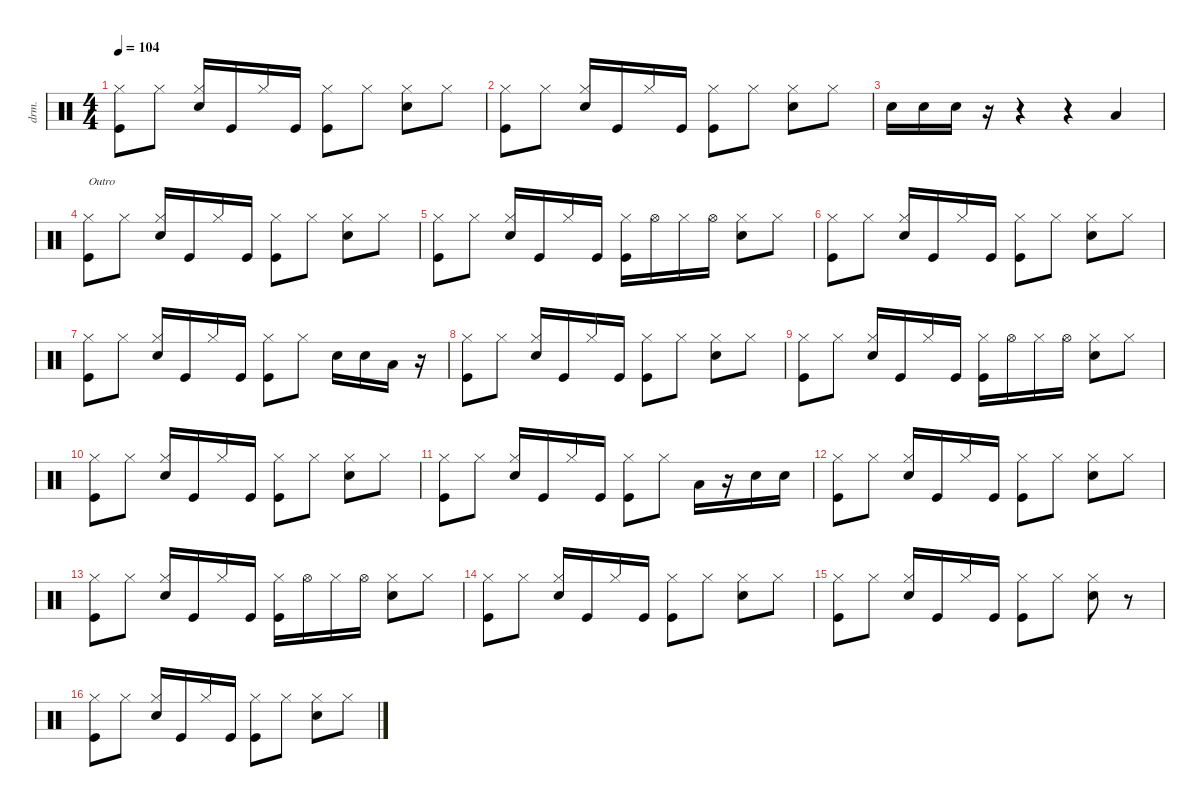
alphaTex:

\defaultSystemsLayout 4
\hideDynamics
\bracketExtendMode nobrackets
\otherSystemsTrackNameOrientation horizontal
\track ("Drumkit" "drm.") {instrument percussion}
\staff {score}
\articulation defaults
\ts (4 4)
\tempo 104
\clef neutral
\ks c
("Kick (hit)" "Hi-Hat (closed)").8{dy mf beam Down} "Hi-Hat (closed)".8{beam Down} ("Hi-Hat (closed)" "Snare (hit) 2").16{beam Up} "Kick (hit)".16{beam Up} "Hi-Hat (closed)".16{beam Up} "Kick (hit)".16{beam Up} ("Hi-Hat (closed)" "Kick (hit)").8{beam Down} "Hi-Hat (closed)".8{beam Down} ("Hi-Hat (closed)" "Snare (hit) 2").8{beam Down} "Hi-Hat (closed)".8{beam Down} |
("Kick (hit)" "Hi-Hat (closed)").8{beam Down} "Hi-Hat (closed)".8{beam Down} ("Hi-Hat (closed)" "Snare (hit) 2").16{beam Up} "Kick (hit)".16{beam Up} "Hi-Hat (closed)".16{beam Up} "Kick (hit)".16{beam Up} ("Hi-Hat (closed)" "Kick (hit)").8{beam Down} "Hi-Hat (closed)".8{beam Down} ("Hi-Hat (closed)" "Snare (hit) 2").8{beam Down} "Hi-Hat (closed)".8{beam Down} |
"Snare (hit) 2".16{beam Down} "Snare (hit) 2".16{beam Down} "Snare (hit) 2".16{beam Down} r.16{beam Down} r.4{beam Down} r.4{beam Down} "Low Tom (hit)".4{beam Up} |
("Kick (hit)" "Hi-Hat (closed)").8{txt "Outro" beam Down} "Hi-Hat (closed)".8{beam Down} ("Hi-Hat (closed)" "Snare (hit) 2").16{beam Up} "Kick (hit)".16{beam Up} "Hi-Hat (closed)".16{beam Up} "Kick (hit)".16{beam Up} ("Hi-Hat (closed)" "Kick (hit)").8{beam Down} "Hi-Hat (closed)".8{beam Down} ("Hi-Hat (closed)" "Snare (hit) 2").8{beam Down} "Hi-Hat (closed)".8{beam Down} |
("Kick (hit)" "Hi-Hat (closed)").8{beam Down} "Hi-Hat (closed)".8{beam Down} ("Hi-Hat (closed)" "Snare (hit) 2").16{beam Up} "Kick (hit)".16{beam Up} "Hi-Hat (closed)".16{beam Up} "Kick (hit)".16{beam Up} ("Kick (hit)" "Hi-Hat (closed)").16{beam Down} "Hi-Hat (open)".16{beam Down} "Hi-Hat (closed)".16{beam Down} "Hi-Hat (open)".16{beam Down} ("Snare (hit) 2" "Hi-Hat (closed)").8{beam Down} "Hi-Hat (closed)".8{beam Down} |
("Kick (hit)" "Hi-Hat (closed)").8{beam Down} "Hi-Hat (closed)".8{beam Down} ("Hi-Hat (closed)" "Snare (hit) 2").16{beam Up} "Kick (hit)".16{beam Up} "Hi-Hat (closed)".16{beam Up} "Kick (hit)".16{beam Up} ("Hi-Hat (closed)" "Kick (hit)").8{beam Down} "Hi-Hat (closed)".8{beam Down} ("Hi-Hat (closed)" "Snare (hit) 2").8{beam Down} "Hi-Hat (closed)".8{beam Down} |
("Kick (hit)" "Hi-Hat (closed)").8{beam Down} "Hi-Hat (closed)".8{beam Down} ("Hi-Hat (closed)" "Snare (hit) 2").16{beam Up} "Kick (hit)".16{beam Up} "Hi-Hat (closed)".16{beam Up} "Kick (hit)".16{beam Up} ("Hi-Hat (closed)" "Kick (hit)").8{beam Down} "Hi-Hat (closed)".8{beam Down} "Snare (hit) 2".16{beam Down} "Snare (hit) 2".16{beam Down} "Low Tom (hit)".16{beam Down} r.16{beam Down} |
("Kick (hit)" "Hi-Hat (closed)").8{beam Down} "Hi-Hat (closed)".8{beam Down} ("Hi-Hat (closed)" "Snare (hit) 2").16{beam Up} "Kick (hit)".16{beam Up} "Hi-Hat (closed)".16{beam Up} "Kick (hit)".16{beam Up} ("Hi-Hat (closed)" "Kick (hit)").8{beam Down} "Hi-Hat (closed)".8{beam Down} ("Hi-Hat (closed)" "Snare (hit) 2").8{beam Down} "Hi-Hat (closed)".8{beam Down} |
("Kick (hit)" "Hi-Hat (closed)").8{beam Down} "Hi-Hat (closed)".8{beam Down} ("Hi-Hat (closed)" "Snare (hit) 2").16{beam Up} "Kick (hit)".16{beam Up} "Hi-Hat (closed)".16{beam Up} "Kick (hit)".16{beam Up} ("Kick (hit)" "Hi-Hat (closed)").16{beam Down} "Hi-Hat (open)".16{beam Down} "Hi-Hat (closed)".16{beam Down} "Hi-Hat (open)".16{beam Down} ("Snare (hit) 2" "Hi-Hat (closed)").8{beam Down} "Hi-Hat (closed)".8{beam Down} |
("Kick (hit)" "Hi-Hat (closed)").8{beam Down} "Hi-Hat (closed)".8{beam Down} ("Hi-Hat (closed)" "Snare (hit) 2").16{beam Up} "Kick (hit)".16{beam Up} "Hi-Hat (closed)".16{beam Up} "Kick (hit)".16{beam Up} ("Hi-Hat (closed)" "Kick (hit)").8{beam Down} "Hi-Hat (closed)".8{beam Down} ("Hi-Hat (closed)" "Snare (hit) 2").8{beam Down} "Hi-Hat (closed)".8{beam Down} |
("Kick (hit)" "Hi-Hat (closed)").8{beam Down} "Hi-Hat (closed)".8{beam Down} ("Hi-Hat (closed)" "Snare (hit) 2").16{beam Up} "Kick (hit)".16{beam Up} "Hi-Hat (closed)".16{beam Up} "Kick (hit)".16{beam Up} ("Hi-Hat (closed)" "Kick (hit)").8{beam Down} "Hi-Hat (closed)".8{beam Down} "Low Tom (hit)".16{beam Down} r.16{beam Down} "Snare (hit) 2".16{beam Down} "Snare (hit) 2".16{beam Down} |
("Kick (hit)" "Hi-Hat (closed)").8{beam Down} "Hi-Hat (closed)".8{beam Down} ("Hi-Hat (closed)" "Snare (hit) 2").16{beam Up} "Kick (hit)".16{beam Up} "Hi-Hat (closed)".16{beam Up} "Kick (hit)".16{beam Up} ("Hi-Hat (closed)" "Kick (hit)").8{beam Down} "Hi-Hat (closed)".8{beam Down} ("Hi-Hat (closed)" "Snare (hit) 2").8{beam Down} "Hi-Hat (closed)".8{beam Down} |
("Kick (hit)" "Hi-Hat (closed)").8{beam Down} "Hi-Hat (closed)".8{beam Down} ("Hi-Hat (closed)" "Snare (hit) 2").16{beam Up} "Kick (hit)".16{beam Up} "Hi-Hat (closed)".16{beam Up} "Kick (hit)".16{beam Up} ("Kick (hit)" "Hi-Hat (closed)").16{beam Down} "Hi-Hat (open)".16{beam Down} "Hi-Hat (closed)".16{beam Down} "Hi-Hat (open)".16{beam Down} ("Snare (hit) 2" "Hi-Hat (closed)").8{beam Down} "Hi-Hat (closed)".8{beam Down} |
("Kick (hit)" "Hi-Hat (closed)").8{beam Down} "Hi-Hat (closed)".8{beam Down} ("Hi-Hat (closed)" "Snare (hit) 2").16{beam Up} "Kick (hit)".16{beam Up} "Hi-Hat (closed)".16{beam Up} "Kick (hit)".16{beam Up} ("Hi-Hat (closed)" "Kick (hit)").8{beam Down} "Hi-Hat (closed)".8{beam Down} ("Hi-Hat (closed)" "Snare (hit) 2").8{beam Down} "Hi-Hat (closed)".8{beam Down} |
("Kick (hit)" "Hi-Hat (closed)").8{beam Down} "Hi-Hat (closed)".8{beam Down} ("Hi-Hat (closed)" "Snare (hit) 2").16{beam Up} "Kick (hit)".16{beam Up} "Hi-Hat (closed)".16{beam Up} "Kick (hit)".16{beam Up} ("Hi-Hat (closed)" "Kick (hit)").8{beam Down} "Hi-Hat (closed)".8{beam Down} ("Hi-Hat (closed)" "Snare (hit) 2").8{beam Down} r.8{beam Down} |
("Kick (hit)" "Hi-Hat (closed)").8{beam Down} "Hi-Hat (closed)".8{beam Down} ("Hi-Hat (closed)" "Snare (hit) 2").16{beam Up} "Kick (hit)".16{beam Up} "Hi-Hat (closed)".16{beam Up} "Kick (hit)".16{beam Up} ("Hi-Hat (closed)" "Kick (hit)").8{beam Down} "Hi-Hat (closed)".8{beam Down} ("Hi-Hat (closed)" "Snare (hit) 2").8{beam Down} "Hi-Hat (closed)".8{beam Down}
